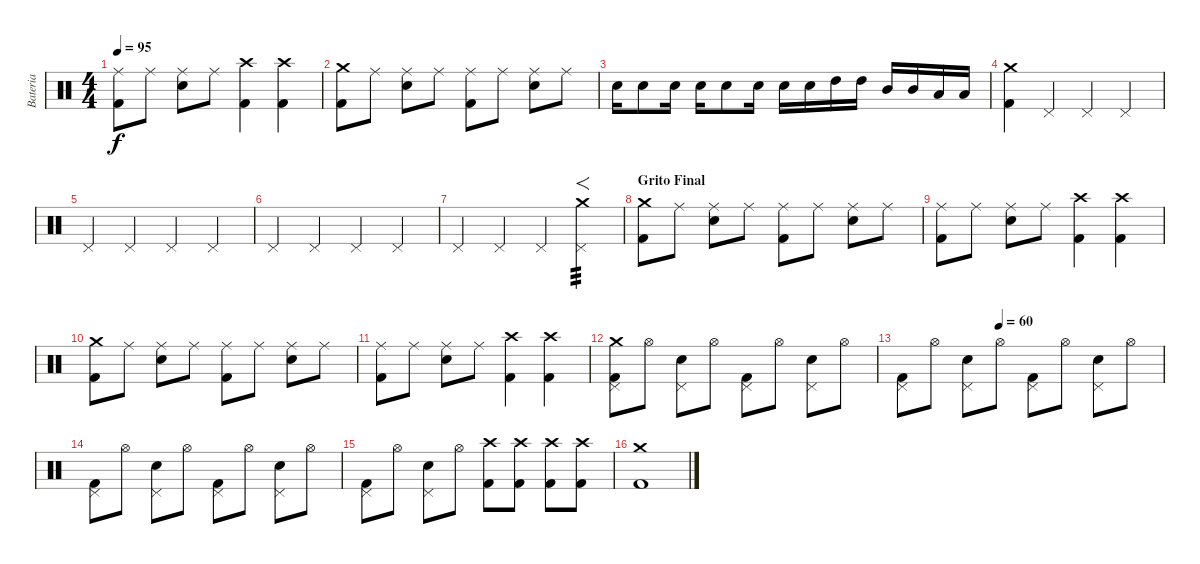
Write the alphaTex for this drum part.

\track ("Bateria" "Bateria") {instrument percussion}
\staff {score}
\articulation defaults
\ts (4 4)
\tempo 95
\clef neutral
\ks c
("Kick (hit) 2" "Ride (middle)").8{dy f} "Ride (middle)".8 ("Snare (hit) 2" "Ride (middle)").8 "Ride (middle)".8 ("Kick (hit) 2" "Crash high (hit)").4 ("Kick (hit) 2" "Crash high (hit)").4 |
("Crash medium (hit)" "Kick (hit) 2").8 "Ride (middle)".8 ("Snare (hit) 2" "Ride (middle)").8 "Ride (middle)".8 ("Kick (hit) 2" "Ride (middle)").8 "Ride (middle)".8 ("Snare (hit) 2" "Ride (middle)").8 "Ride (middle)".8 |
"Snare (hit) 2".16 "Snare (hit) 2".8 "Snare (hit) 2".16 "Snare (hit) 2".16 "Snare (hit) 2".8 "Snare (hit) 2".16 "Snare (hit) 2".16 "Snare (hit) 2".16 "High Tom (hit)".16 "High Tom (hit)".16 "Mid Tom (hit)".16 "Mid Tom (hit)".16 "Low Tom (hit)".16 "Low Tom (hit)".16 |
("Kick (hit) 2" "Crash medium (hit)").4 "Pedal Hi-Hat (hit)".4 "Pedal Hi-Hat (hit)".4 "Pedal Hi-Hat (hit)".4 |
"Pedal Hi-Hat (hit)".4 "Pedal Hi-Hat (hit)".4 "Pedal Hi-Hat (hit)".4 "Pedal Hi-Hat (hit)".4 |
"Pedal Hi-Hat (hit)".4 "Pedal Hi-Hat (hit)".4 "Pedal Hi-Hat (hit)".4 "Pedal Hi-Hat (hit)".4 |
"Pedal Hi-Hat (hit)".4 "Pedal Hi-Hat (hit)".4 "Pedal Hi-Hat (hit)".4 ("Pedal Hi-Hat (hit)" "Crash medium (hit)").4{f tp 3} |
\section ("" "Grito Final")
("Crash medium (hit)" "Kick (hit) 2").8 "Ride (middle)".8 ("Snare (hit) 2" "Ride (middle)").8 "Ride (middle)".8 ("Kick (hit) 2" "Ride (middle)").8 "Ride (middle)".8 ("Snare (hit) 2" "Ride (middle)").8 "Ride (middle)".8 |
("Kick (hit) 2" "Ride (middle)").8 "Ride (middle)".8 ("Snare (hit) 2" "Ride (middle)").8 "Ride (middle)".8 ("Kick (hit) 2" "Crash high (hit)").4 ("Kick (hit) 2" "Crash high (hit)").4 |
("Crash medium (hit)" "Kick (hit) 2").8 "Ride (middle)".8 ("Snare (hit) 2" "Ride (middle)").8 "Ride (middle)".8 ("Kick (hit) 2" "Ride (middle)").8 "Ride (middle)".8 ("Snare (hit) 2" "Ride (middle)").8 "Ride (middle)".8 |
("Kick (hit) 2" "Ride (middle)").8 "Ride (middle)".8 ("Snare (hit) 2" "Ride (middle)").8 "Ride (middle)".8 ("Kick (hit) 2" "Crash high (hit)").4 ("Kick (hit) 2" "Crash high (hit)").4 |
("Crash medium (hit)" "Kick (hit) 2" "Pedal Hi-Hat (hit)").8 "Hi-Hat (open)".8 ("Snare (hit) 2" "Pedal Hi-Hat (hit)").8 "Hi-Hat (open)".8 ("Kick (hit) 2" "Pedal Hi-Hat (hit)").8 "Hi-Hat (open)".8 ("Snare (hit) 2" "Pedal Hi-Hat (hit)").8 "Hi-Hat (open)".8 |
\tempo (60 0.375)
("Kick (hit) 2" "Pedal Hi-Hat (hit)").8 "Hi-Hat (open)".8 ("Snare (hit) 2" "Pedal Hi-Hat (hit)").8 "Hi-Hat (open)".8 ("Kick (hit) 2" "Pedal Hi-Hat (hit)").8 "Hi-Hat (open)".8 ("Snare (hit) 2" "Pedal Hi-Hat (hit)").8 "Hi-Hat (open)".8 |
("Kick (hit) 2" "Pedal Hi-Hat (hit)").8 "Hi-Hat (open)".8 ("Snare (hit) 2" "Pedal Hi-Hat (hit)").8 "Hi-Hat (open)".8 ("Kick (hit) 2" "Pedal Hi-Hat (hit)").8 "Hi-Hat (open)".8 ("Snare (hit) 2" "Pedal Hi-Hat (hit)").8 "Hi-Hat (open)".8 |
("Kick (hit) 2" "Pedal Hi-Hat (hit)").8 "Hi-Hat (open)".8 ("Snare (hit) 2" "Pedal Hi-Hat (hit)").8 "Hi-Hat (open)".8 ("Kick (hit) 2" "Crash high (hit)").8 ("Kick (hit) 2" "Crash high (hit)").8 ("Kick (hit) 2" "Crash high (hit)").8 ("Kick (hit) 2" "Crash high (hit)").8 |
("Kick (hit) 2" "Crash medium (hit)").1
